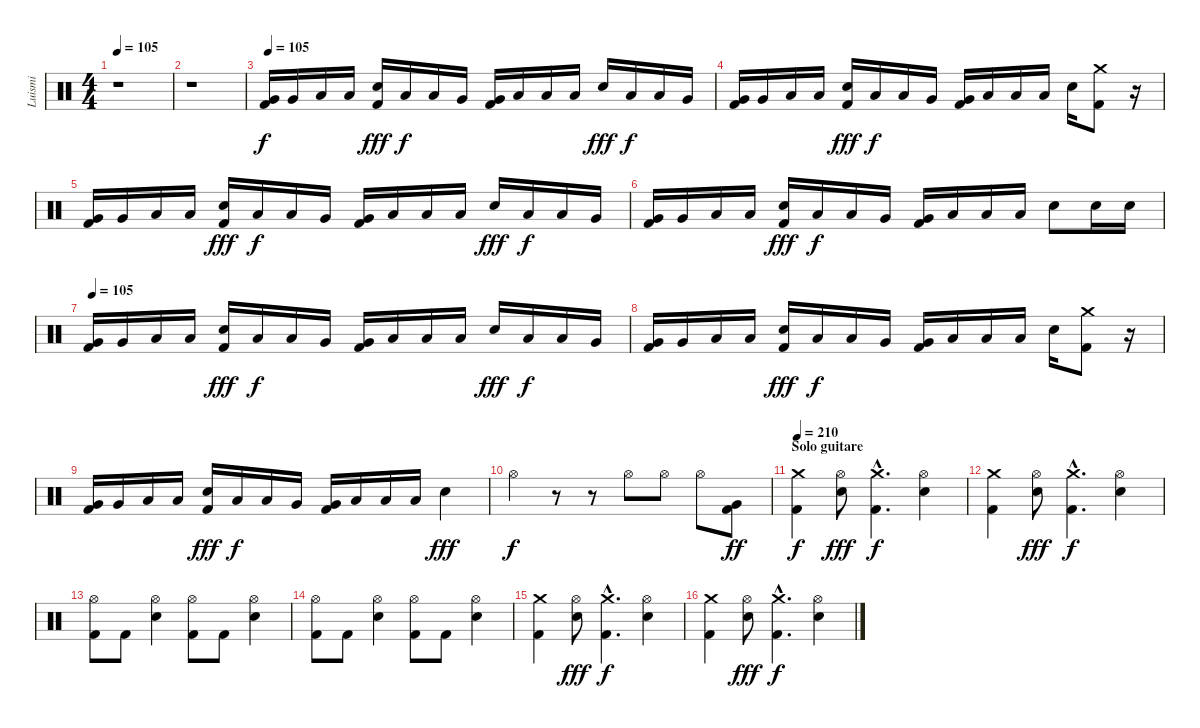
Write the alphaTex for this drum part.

\track ("Luismi" "Luismi") {instrument percussion}
\staff {score}
\articulation defaults
\ts (4 4)
\tempo 105
\clef neutral
\ks c
r.1{dy fff} |
r.1 |
\tempo 105
("Very Low Tom (hit)" "Kick (hit) 2").16{dy f} "Very Low Tom (hit)".16 "Low Floor Tom (hit)".16 "Low Floor Tom (hit)".16 ("Snare (hit) 2" "Kick (hit) 2").16{dy fff} "Low Tom (hit)".16{dy f} "Low Tom (hit)".16 "Very Low Tom (hit)".16 ("Very Low Tom (hit)" "Kick (hit) 2").16 "Low Floor Tom (hit)".16 "Low Floor Tom (hit)".16 "Low Floor Tom (hit)".16 "Snare (hit) 2".16{dy fff} "Low Tom (hit)".16{dy f} "Low Tom (hit)".16 "Very Low Tom (hit)".16 |
("Very Low Tom (hit)" "Kick (hit) 2").16 "Very Low Tom (hit)".16 "Low Floor Tom (hit)".16 "Low Floor Tom (hit)".16 ("Snare (hit) 2" "Kick (hit) 2").16{dy fff} "Low Tom (hit)".16{dy f} "Low Tom (hit)".16 "Very Low Tom (hit)".16 ("Very Low Tom (hit)" "Kick (hit) 2").16 "Low Floor Tom (hit)".16 "Low Floor Tom (hit)".16 "Low Floor Tom (hit)".16 "Snare (hit) 2".16 ("Crash medium (hit)" "Kick (hit) 2").8 r.16 |
("Very Low Tom (hit)" "Kick (hit) 2").16 "Very Low Tom (hit)".16 "Low Floor Tom (hit)".16 "Low Floor Tom (hit)".16 ("Snare (hit) 2" "Kick (hit) 2").16{dy fff} "Low Tom (hit)".16{dy f} "Low Tom (hit)".16 "Very Low Tom (hit)".16 ("Very Low Tom (hit)" "Kick (hit) 2").16 "Low Floor Tom (hit)".16 "Low Floor Tom (hit)".16 "Low Floor Tom (hit)".16 "Snare (hit) 2".16{dy fff} "Low Tom (hit)".16{dy f} "Low Tom (hit)".16 "Very Low Tom (hit)".16 |
("Very Low Tom (hit)" "Kick (hit) 2").16 "Very Low Tom (hit)".16 "Low Floor Tom (hit)".16 "Low Floor Tom (hit)".16 ("Snare (hit) 2" "Kick (hit) 2").16{dy fff} "Low Tom (hit)".16{dy f} "Low Tom (hit)".16 "Very Low Tom (hit)".16 ("Very Low Tom (hit)" "Kick (hit) 2").16 "Low Floor Tom (hit)".16 "Low Floor Tom (hit)".16 "Low Floor Tom (hit)".16 "Snare (hit) 2".8 "Snare (hit) 2".16 "Snare (hit) 2".16 |
\tempo 105
("Very Low Tom (hit)" "Kick (hit) 2").16 "Very Low Tom (hit)".16 "Low Floor Tom (hit)".16 "Low Floor Tom (hit)".16 ("Snare (hit) 2" "Kick (hit) 2").16{dy fff} "Low Tom (hit)".16{dy f} "Low Tom (hit)".16 "Very Low Tom (hit)".16 ("Very Low Tom (hit)" "Kick (hit) 2").16 "Low Floor Tom (hit)".16 "Low Floor Tom (hit)".16 "Low Floor Tom (hit)".16 "Snare (hit) 2".16{dy fff} "Low Tom (hit)".16{dy f} "Low Tom (hit)".16 "Very Low Tom (hit)".16 |
("Very Low Tom (hit)" "Kick (hit) 2").16 "Very Low Tom (hit)".16 "Low Floor Tom (hit)".16 "Low Floor Tom (hit)".16 ("Snare (hit) 2" "Kick (hit) 2").16{dy fff} "Low Tom (hit)".16{dy f} "Low Tom (hit)".16 "Very Low Tom (hit)".16 ("Very Low Tom (hit)" "Kick (hit) 2").16 "Low Floor Tom (hit)".16 "Low Floor Tom (hit)".16 "Low Floor Tom (hit)".16 "Snare (hit) 2".16 ("Crash medium (hit)" "Kick (hit) 2").8 r.16 |
("Very Low Tom (hit)" "Kick (hit) 2").16 "Very Low Tom (hit)".16 "Low Floor Tom (hit)".16 "Low Floor Tom (hit)".16 ("Snare (hit) 2" "Kick (hit) 2").16{dy fff} "Low Tom (hit)".16{dy f} "Low Tom (hit)".16 "Very Low Tom (hit)".16 ("Very Low Tom (hit)" "Kick (hit) 2").16 "Low Floor Tom (hit)".16 "Low Floor Tom (hit)".16 "Low Floor Tom (hit)".16 "Snare (hit) 2".4{dy fff} |
"Hi-Hat (open)".4{dy f} r.8 r.8 "Hi-Hat (open)".8 "Hi-Hat (open)".8 "Hi-Hat (open)".8 ("Very Low Tom (hit)" "Kick (hit) 2").8{dy ff} |
\section ("" "Solo guitare")
\tempo 210
("Crash medium (hit)" "Kick (hit) 2").4{dy f} ("Hi-Hat (open)" "Snare (hit) 2").8{dy fff} ("Crash medium (hit)"{hac} "Kick (hit) 2"{hac}).4{d dy f} ("Hi-Hat (open)" "Snare (hit) 2").4 |
("Crash medium (hit)" "Kick (hit) 2").4 ("Hi-Hat (open)" "Snare (hit) 2").8{dy fff} ("Crash medium (hit)"{hac} "Kick (hit) 2"{hac}).4{d dy f} ("Hi-Hat (open)" "Snare (hit) 2").4 |
("Hi-Hat (open)" "Kick (hit) 2").8 "Kick (hit) 2".8 ("Hi-Hat (open)" "Snare (hit) 2").4 ("Hi-Hat (open)" "Kick (hit) 2").8 "Kick (hit) 2".8 ("Hi-Hat (open)" "Snare (hit) 2").4 |
("Hi-Hat (open)" "Kick (hit) 2").8 "Kick (hit) 2".8 ("Hi-Hat (open)" "Snare (hit) 2").4 ("Hi-Hat (open)" "Kick (hit) 2").8 "Kick (hit) 2".8 ("Hi-Hat (open)" "Snare (hit) 2").4 |
("Crash medium (hit)" "Kick (hit) 2").4 ("Hi-Hat (open)" "Snare (hit) 2").8{dy fff} ("Crash medium (hit)"{hac} "Kick (hit) 2"{hac}).4{d dy f} ("Hi-Hat (open)" "Snare (hit) 2").4 |
("Crash medium (hit)" "Kick (hit) 2").4 ("Hi-Hat (open)" "Snare (hit) 2").8{dy fff} ("Crash medium (hit)"{hac} "Kick (hit) 2"{hac}).4{d dy f} ("Hi-Hat (open)" "Snare (hit) 2").4
